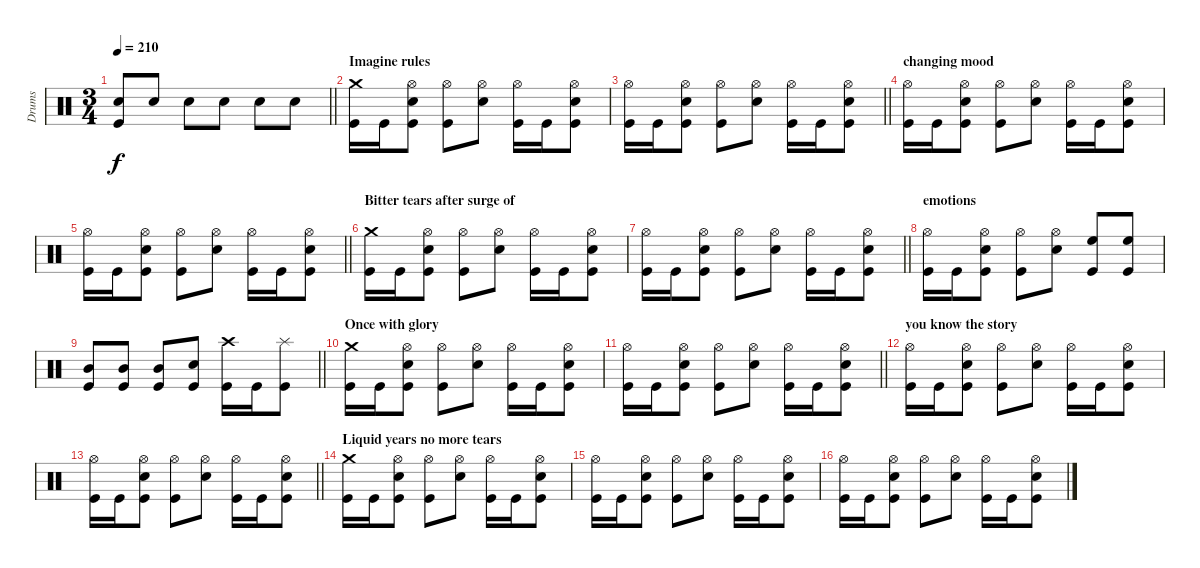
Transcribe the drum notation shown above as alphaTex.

\track ("Drums" "Drums") {instrument percussion}
\staff {score}
\articulation defaults
\ts (3 4)
\tempo 210
\clef neutral
\barLineRight lightlight
\ks c
("Snare (hit) 2" "Kick (hit)").8{dy f} "Snare (hit) 2".8 "Snare (hit) 2".8 "Snare (hit) 2".8 "Snare (hit) 2".8 "Snare (hit) 2".8 |
\section ("" "Imagine rules")
("Crash medium (hit)" "Kick (hit)").16 "Kick (hit)".16 ("Hi-Hat (open)" "Snare (hit) 2" "Kick (hit)").8 ("Hi-Hat (open)" "Kick (hit)").8 ("Hi-Hat (open)" "Snare (hit) 2").8 ("Hi-Hat (open)" "Kick (hit)").16 "Kick (hit)".16 ("Hi-Hat (open)" "Snare (hit) 2" "Kick (hit)").8 |
\barLineRight lightlight
("Hi-Hat (open)" "Kick (hit)").16 "Kick (hit)".16 ("Hi-Hat (open)" "Snare (hit) 2" "Kick (hit)").8 ("Hi-Hat (open)" "Kick (hit)").8 ("Hi-Hat (open)" "Snare (hit) 2").8 ("Hi-Hat (open)" "Kick (hit)").16 "Kick (hit)".16 ("Hi-Hat (open)" "Snare (hit) 2" "Kick (hit)").8 |
\section ("" "changing mood")
("Hi-Hat (open)" "Kick (hit)").16 "Kick (hit)".16 ("Hi-Hat (open)" "Snare (hit) 2" "Kick (hit)").8 ("Hi-Hat (open)" "Kick (hit)").8 ("Hi-Hat (open)" "Snare (hit) 2").8 ("Hi-Hat (open)" "Kick (hit)").16 "Kick (hit)".16 ("Hi-Hat (open)" "Snare (hit) 2" "Kick (hit)").8 |
\barLineRight lightlight
("Hi-Hat (open)" "Kick (hit)").16 "Kick (hit)".16 ("Hi-Hat (open)" "Snare (hit) 2" "Kick (hit)").8 ("Hi-Hat (open)" "Kick (hit)").8 ("Hi-Hat (open)" "Snare (hit) 2").8 ("Hi-Hat (open)" "Kick (hit)").16 "Kick (hit)".16 ("Hi-Hat (open)" "Snare (hit) 2" "Kick (hit)").8 |
\section ("" "Bitter tears after surge of ")
("Crash medium (hit)" "Kick (hit)").16 "Kick (hit)".16 ("Hi-Hat (open)" "Snare (hit) 2" "Kick (hit)").8 ("Hi-Hat (open)" "Kick (hit)").8 ("Hi-Hat (open)" "Snare (hit) 2").8 ("Hi-Hat (open)" "Kick (hit)").16 "Kick (hit)".16 ("Hi-Hat (open)" "Snare (hit) 2" "Kick (hit)").8 |
\barLineRight lightlight
("Hi-Hat (open)" "Kick (hit)").16 "Kick (hit)".16 ("Hi-Hat (open)" "Snare (hit) 2" "Kick (hit)").8 ("Hi-Hat (open)" "Kick (hit)").8 ("Hi-Hat (open)" "Snare (hit) 2").8 ("Hi-Hat (open)" "Kick (hit)").16 "Kick (hit)".16 ("Hi-Hat (open)" "Snare (hit) 2" "Kick (hit)").8 |
\section ("" "emotions")
("Hi-Hat (open)" "Kick (hit)").16 "Kick (hit)".16 ("Hi-Hat (open)" "Snare (hit) 2" "Kick (hit)").8 ("Hi-Hat (open)" "Kick (hit)").8 ("Hi-Hat (open)" "Snare (hit) 2").8 ("High Floor Tom (hit)" "Kick (hit)").8 ("High Floor Tom (hit)" "Kick (hit)").8 |
\barLineRight lightlight
("Mid Tom (hit)" "Kick (hit)").8 ("Mid Tom (hit)" "Kick (hit)").8 ("Mid Tom (hit)" "Kick (hit)").8 ("Snare (hit) 2" "Kick (hit)").8 ("Crash high (hit)" "Kick (hit)").16 "Kick (hit)".16 ("Splash (hit)" "Kick (hit)").8 |
\section ("" "Once with glory ")
("Crash medium (hit)" "Kick (hit)").16 "Kick (hit)".16 ("Hi-Hat (open)" "Snare (hit) 2" "Kick (hit)").8 ("Hi-Hat (open)" "Kick (hit)").8 ("Hi-Hat (open)" "Snare (hit) 2").8 ("Hi-Hat (open)" "Kick (hit)").16 "Kick (hit)".16 ("Hi-Hat (open)" "Snare (hit) 2" "Kick (hit)").8 |
\barLineRight lightlight
("Hi-Hat (open)" "Kick (hit)").16 "Kick (hit)".16 ("Hi-Hat (open)" "Snare (hit) 2" "Kick (hit)").8 ("Hi-Hat (open)" "Kick (hit)").8 ("Hi-Hat (open)" "Snare (hit) 2").8 ("Hi-Hat (open)" "Kick (hit)").16 "Kick (hit)".16 ("Hi-Hat (open)" "Snare (hit) 2" "Kick (hit)").8 |
\section ("" "you know the story")
("Hi-Hat (open)" "Kick (hit)").16 "Kick (hit)".16 ("Hi-Hat (open)" "Snare (hit) 2" "Kick (hit)").8 ("Hi-Hat (open)" "Kick (hit)").8 ("Hi-Hat (open)" "Snare (hit) 2").8 ("Hi-Hat (open)" "Kick (hit)").16 "Kick (hit)".16 ("Hi-Hat (open)" "Snare (hit) 2" "Kick (hit)").8 |
\barLineRight lightlight
("Hi-Hat (open)" "Kick (hit)").16 "Kick (hit)".16 ("Hi-Hat (open)" "Snare (hit) 2" "Kick (hit)").8 ("Hi-Hat (open)" "Kick (hit)").8 ("Hi-Hat (open)" "Snare (hit) 2").8 ("Hi-Hat (open)" "Kick (hit)").16 "Kick (hit)".16 ("Hi-Hat (open)" "Snare (hit) 2" "Kick (hit)").8 |
\section ("" "Liquid years no more tears")
("Crash medium (hit)" "Kick (hit)").16 "Kick (hit)".16 ("Hi-Hat (open)" "Snare (hit) 2" "Kick (hit)").8 ("Hi-Hat (open)" "Kick (hit)").8 ("Hi-Hat (open)" "Snare (hit) 2").8 ("Hi-Hat (open)" "Kick (hit)").16 "Kick (hit)".16 ("Hi-Hat (open)" "Snare (hit) 2" "Kick (hit)").8 |
("Hi-Hat (open)" "Kick (hit)").16 "Kick (hit)".16 ("Hi-Hat (open)" "Snare (hit) 2" "Kick (hit)").8 ("Hi-Hat (open)" "Kick (hit)").8 ("Hi-Hat (open)" "Snare (hit) 2").8 ("Hi-Hat (open)" "Kick (hit)").16 "Kick (hit)".16 ("Hi-Hat (open)" "Snare (hit) 2" "Kick (hit)").8 |
("Hi-Hat (open)" "Kick (hit)").16 "Kick (hit)".16 ("Hi-Hat (open)" "Snare (hit) 2" "Kick (hit)").8 ("Hi-Hat (open)" "Kick (hit)").8 ("Hi-Hat (open)" "Snare (hit) 2").8 ("Hi-Hat (open)" "Kick (hit)").16 "Kick (hit)".16 ("Hi-Hat (open)" "Snare (hit) 2" "Kick (hit)").8
